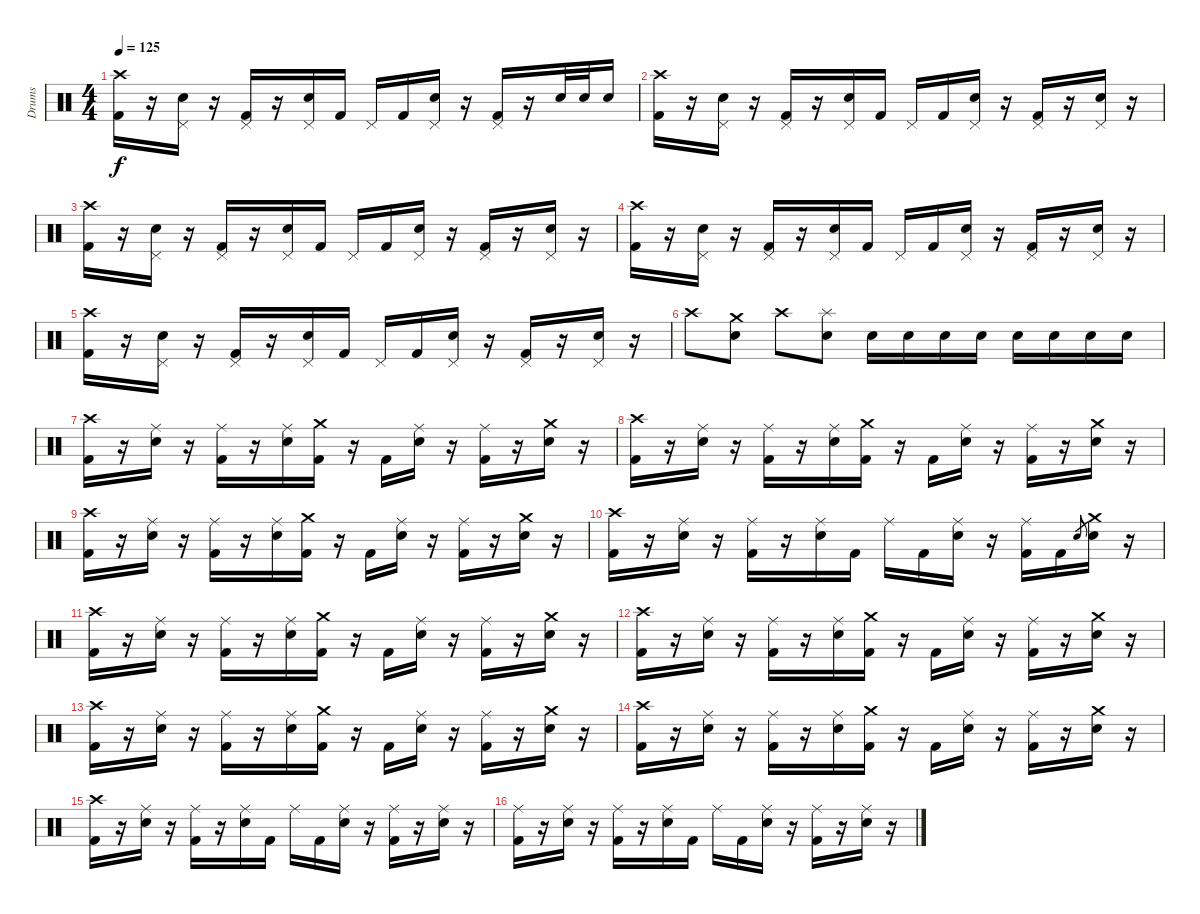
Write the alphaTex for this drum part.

\track ("Drums" "Drums") {instrument percussion}
\staff {score}
\articulation defaults
\ts (4 4)
\tempo 125
\clef neutral
\ks c
("Crash high (hit)" "Kick (hit) 2").16{dy f volume 14} r.16 ("Pedal Hi-Hat (hit)" "Electric Snare (hit)").16 r.16 ("Pedal Hi-Hat (hit)" "Kick (hit) 2").16 r.16 ("Pedal Hi-Hat (hit)" "Electric Snare (hit)").16 "Kick (hit) 2".16 "Pedal Hi-Hat (hit)".16 "Kick (hit) 2".16 ("Pedal Hi-Hat (hit)" "Electric Snare (hit)").16 r.16 ("Pedal Hi-Hat (hit)" "Kick (hit) 2").16 r.16 "Electric Snare (hit)".32 "Electric Snare (hit)".32 "Electric Snare (hit)".16 |
("Crash high (hit)" "Kick (hit) 2").16{volume 14} r.16 ("Pedal Hi-Hat (hit)" "Electric Snare (hit)").16 r.16 ("Pedal Hi-Hat (hit)" "Kick (hit) 2").16 r.16 ("Pedal Hi-Hat (hit)" "Electric Snare (hit)").16 "Kick (hit) 2".16 "Pedal Hi-Hat (hit)".16 "Kick (hit) 2".16 ("Pedal Hi-Hat (hit)" "Electric Snare (hit)").16 r.16 ("Pedal Hi-Hat (hit)" "Kick (hit) 2").16 r.16 ("Pedal Hi-Hat (hit)" "Electric Snare (hit)").16 r.16 |
("Crash high (hit)" "Kick (hit) 2").16{volume 14} r.16 ("Pedal Hi-Hat (hit)" "Electric Snare (hit)").16 r.16 ("Pedal Hi-Hat (hit)" "Kick (hit) 2").16 r.16 ("Pedal Hi-Hat (hit)" "Electric Snare (hit)").16 "Kick (hit) 2".16 "Pedal Hi-Hat (hit)".16 "Kick (hit) 2".16 ("Pedal Hi-Hat (hit)" "Electric Snare (hit)").16 r.16 ("Pedal Hi-Hat (hit)" "Kick (hit) 2").16 r.16 ("Pedal Hi-Hat (hit)" "Electric Snare (hit)").16 r.16 |
("Crash high (hit)" "Kick (hit) 2").16{volume 14} r.16 ("Pedal Hi-Hat (hit)" "Electric Snare (hit)").16 r.16 ("Pedal Hi-Hat (hit)" "Kick (hit) 2").16 r.16 ("Pedal Hi-Hat (hit)" "Electric Snare (hit)").16 "Kick (hit) 2".16 "Pedal Hi-Hat (hit)".16 "Kick (hit) 2".16 ("Pedal Hi-Hat (hit)" "Electric Snare (hit)").16 r.16 ("Pedal Hi-Hat (hit)" "Kick (hit) 2").16 r.16 ("Pedal Hi-Hat (hit)" "Electric Snare (hit)").16 r.16 |
("Crash high (hit)" "Kick (hit) 2").16{volume 14} r.16 ("Pedal Hi-Hat (hit)" "Electric Snare (hit)").16 r.16 ("Pedal Hi-Hat (hit)" "Kick (hit) 2").16 r.16 ("Pedal Hi-Hat (hit)" "Electric Snare (hit)").16 "Kick (hit) 2".16 "Pedal Hi-Hat (hit)".16 "Kick (hit) 2".16 ("Pedal Hi-Hat (hit)" "Electric Snare (hit)").16 r.16 ("Pedal Hi-Hat (hit)" "Kick (hit) 2").16 r.16 ("Pedal Hi-Hat (hit)" "Electric Snare (hit)").16 r.16 |
"Crash high (hit)".8 ("Crash medium (hit)" "Electric Snare (hit)").8 "Crash high (hit)".8 ("Splash (hit)" "Electric Snare (hit)").8 "Electric Snare (hit)".16 "Electric Snare (hit)".16 "Electric Snare (hit)".16 "Electric Snare (hit)".16 "Electric Snare (hit)".16 "Electric Snare (hit)".16 "Electric Snare (hit)".16 "Electric Snare (hit)".16 |
("Crash high (hit)" "Kick (hit) 2").16 r.16 ("Ride (middle)" "Electric Snare (hit)").16 r.16 ("Ride (middle)" "Kick (hit) 2").16 r.16 ("Ride (middle)" "Electric Snare (hit)").16 ("Crash medium (hit)" "Kick (hit) 2").16 r.16 "Kick (hit) 2".16 ("Ride (middle)" "Electric Snare (hit)").16 r.16 ("Ride (middle)" "Kick (hit) 2").16 r.16 ("Crash medium (hit)" "Electric Snare (hit)").16 r.16 |
("Crash high (hit)" "Kick (hit) 2").16 r.16 ("Ride (middle)" "Electric Snare (hit)").16 r.16 ("Ride (middle)" "Kick (hit) 2").16 r.16 ("Ride (middle)" "Electric Snare (hit)").16 ("Crash medium (hit)" "Kick (hit) 2").16 r.16 "Kick (hit) 2".16 ("Ride (middle)" "Electric Snare (hit)").16 r.16 ("Ride (middle)" "Kick (hit) 2").16 r.16 ("Crash medium (hit)" "Electric Snare (hit)").16 r.16 |
("Crash high (hit)" "Kick (hit) 2").16 r.16 ("Ride (middle)" "Electric Snare (hit)").16 r.16 ("Ride (middle)" "Kick (hit) 2").16 r.16 ("Ride (middle)" "Electric Snare (hit)").16 ("Crash medium (hit)" "Kick (hit) 2").16 r.16 "Kick (hit) 2".16 ("Ride (middle)" "Electric Snare (hit)").16 r.16 ("Ride (middle)" "Kick (hit) 2").16 r.16 ("Crash medium (hit)" "Electric Snare (hit)").16 r.16 |
("Crash high (hit)" "Kick (hit) 2").16 r.16 ("Ride (middle)" "Electric Snare (hit)").16 r.16 ("Ride (middle)" "Kick (hit) 2").16 r.16 ("Ride (middle)" "Electric Snare (hit)").16 "Kick (hit) 2".16 "Ride (middle)".16 "Kick (hit) 2".16 ("Ride (middle)" "Electric Snare (hit)").16 r.16 ("Ride (middle)" "Kick (hit) 2").16 "Kick (hit) 2".16 "Electric Snare (hit)".8{gr} ("Crash medium (hit)" "Electric Snare (hit)").16 r.16 |
("Crash high (hit)" "Kick (hit) 2").16 r.16 ("Ride (middle)" "Electric Snare (hit)").16 r.16 ("Ride (middle)" "Kick (hit) 2").16 r.16 ("Ride (middle)" "Electric Snare (hit)").16 ("Crash medium (hit)" "Kick (hit) 2").16 r.16 "Kick (hit) 2".16 ("Ride (middle)" "Electric Snare (hit)").16 r.16 ("Ride (middle)" "Kick (hit) 2").16 r.16 ("Crash medium (hit)" "Electric Snare (hit)").16 r.16 |
("Crash high (hit)" "Kick (hit) 2").16 r.16 ("Ride (middle)" "Electric Snare (hit)").16 r.16 ("Ride (middle)" "Kick (hit) 2").16 r.16 ("Ride (middle)" "Electric Snare (hit)").16 ("Crash medium (hit)" "Kick (hit) 2").16 r.16 "Kick (hit) 2".16 ("Ride (middle)" "Electric Snare (hit)").16 r.16 ("Ride (middle)" "Kick (hit) 2").16 r.16 ("Crash medium (hit)" "Electric Snare (hit)").16 r.16 |
("Crash high (hit)" "Kick (hit) 2").16 r.16 ("Ride (middle)" "Electric Snare (hit)").16 r.16 ("Ride (middle)" "Kick (hit) 2").16 r.16 ("Ride (middle)" "Electric Snare (hit)").16 ("Crash medium (hit)" "Kick (hit) 2").16 r.16 "Kick (hit) 2".16 ("Ride (middle)" "Electric Snare (hit)").16 r.16 ("Ride (middle)" "Kick (hit) 2").16 r.16 ("Crash medium (hit)" "Electric Snare (hit)").16 r.16 |
("Crash high (hit)" "Kick (hit) 2").16 r.16 ("Ride (middle)" "Electric Snare (hit)").16 r.16 ("Ride (middle)" "Kick (hit) 2").16 r.16 ("Ride (middle)" "Electric Snare (hit)").16 ("Crash medium (hit)" "Kick (hit) 2").16 r.16 "Kick (hit) 2".16 ("Ride (middle)" "Electric Snare (hit)").16 r.16 ("Ride (middle)" "Kick (hit) 2").16 r.16 ("Crash medium (hit)" "Electric Snare (hit)").16 r.16 |
("Crash high (hit)" "Kick (hit) 2").16 r.16 ("Ride (middle)" "Electric Snare (hit)").16 r.16 ("Ride (middle)" "Kick (hit) 2").16 r.16 ("Ride (middle)" "Electric Snare (hit)").16 "Kick (hit) 2".16 "Ride (middle)".16 "Kick (hit) 2".16 ("Ride (middle)" "Electric Snare (hit)").16 r.16 ("Ride (middle)" "Kick (hit) 2").16 r.16 ("Ride (middle)" "Electric Snare (hit)").16 r.16 |
("Ride (middle)" "Kick (hit) 2").16 r.16 ("Ride (middle)" "Electric Snare (hit)").16 r.16 ("Ride (middle)" "Kick (hit) 2").16 r.16 ("Ride (middle)" "Electric Snare (hit)").16 "Kick (hit) 2".16 "Ride (middle)".16 "Kick (hit) 2".16 ("Ride (middle)" "Electric Snare (hit)").16 r.16 ("Ride (middle)" "Kick (hit) 2").16 r.16 ("Ride (middle)" "Electric Snare (hit)").16 r.16
